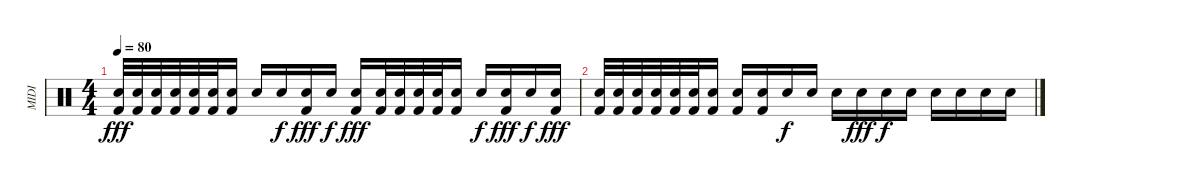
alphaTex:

\track ("MIDI" "MIDI") {instrument percussion}
\staff
\articulation defaults
\ts (4 4)
\tempo 80
\clef neutral
\ks c
("Kick (hit) 2" "Snare (hit)").32{dy fff} ("Kick (hit) 2" "Snare (hit)").32 ("Kick (hit) 2" "Snare (hit)").32 ("Kick (hit) 2" "Snare (hit)").32 ("Kick (hit) 2" "Snare (hit)").32 ("Kick (hit) 2" "Snare (hit)").32 ("Kick (hit) 2" "Snare (hit)").16 "Snare (hit)".16 "Snare (hit)".16{dy f} ("Kick (hit) 2" "Snare (hit)").16{dy fff} "Snare (hit)".16{dy f} ("Kick (hit) 2" "Snare (hit)").16{dy fff} ("Kick (hit) 2" "Snare (hit)").32 ("Kick (hit) 2" "Snare (hit)").32 ("Kick (hit) 2" "Snare (hit)").32 ("Kick (hit) 2" "Snare (hit)").32 ("Kick (hit) 2" "Snare (hit)").16 "Snare (hit)".16{dy f} ("Kick (hit) 2" "Snare (hit)").16{dy fff} "Snare (hit)".16{dy f} ("Kick (hit) 2" "Snare (hit)").16{dy fff} |
("Kick (hit) 2" "Snare (hit)").32 ("Kick (hit) 2" "Snare (hit)").32 ("Kick (hit) 2" "Snare (hit)").32 ("Kick (hit) 2" "Snare (hit)").32 ("Kick (hit) 2" "Snare (hit)").32 ("Kick (hit) 2" "Snare (hit)").32 ("Kick (hit) 2" "Snare (hit)").16 ("Kick (hit) 2" "Snare (hit)").16 ("Kick (hit) 2" "Snare (hit)").16 "Snare (hit)".16{dy f} "Snare (hit)".16 "Snare (hit)".16 "Snare (hit)".16{dy fff} "Snare (hit)".16{dy f} "Snare (hit)".16 "Snare (hit)".16 "Snare (hit)".16 "Snare (hit)".16 "Snare (hit)".16
